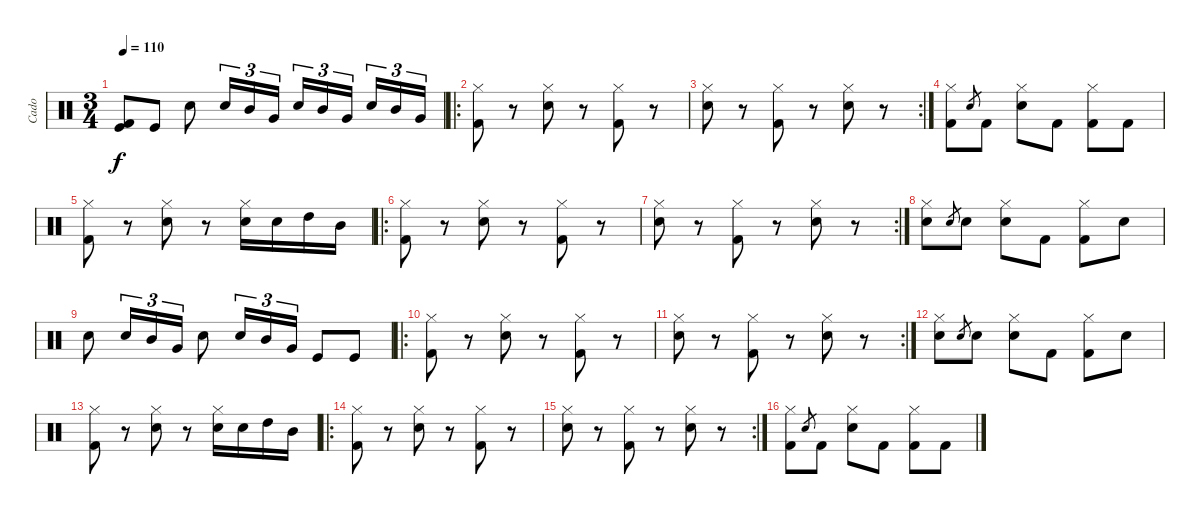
\track ("Cado" "Cado") {instrument percussion}
\staff {score}
\articulation defaults
\ts (3 4)
\tempo 110
\clef neutral
\ks c
("Kick (hit) 2" "Kick (hit)").8{dy f} "Kick (hit)".8 "Snare (hit) 2".8 "Snare (hit) 2".16{tu (3 2)} "Mid Tom (hit)".16{tu (3 2)} "Very Low Tom (hit)".16{tu (3 2)} "Snare (hit) 2".16{tu (3 2)} "Mid Tom (hit)".16{tu (3 2)} "Very Low Tom (hit)".16{tu (3 2)} "Snare (hit) 2".16{tu (3 2)} "Mid Tom (hit)".16{tu (3 2)} "Very Low Tom (hit)".16{tu (3 2)} |
\ro
("Hi-Hat (closed)" "Kick (hit) 2").8 r.8 ("Hi-Hat (closed)" "Snare (hit) 2").8 r.8 ("Hi-Hat (closed)" "Kick (hit) 2").8 r.8 |
\rc 2
("Hi-Hat (closed)" "Snare (hit) 2").8 r.8 ("Hi-Hat (closed)" "Kick (hit) 2").8 r.8 ("Hi-Hat (closed)" "Snare (hit) 2").8 r.8 |
("Hi-Hat (closed)" "Kick (hit) 2").8 "Snare (hit) 2".8{gr} "Kick (hit) 2".8 ("Hi-Hat (closed)" "Snare (hit) 2").8 "Kick (hit) 2".8 ("Hi-Hat (closed)" "Kick (hit) 2").8 "Kick (hit) 2".8 |
("Hi-Hat (closed)" "Kick (hit) 2").8 r.8 ("Hi-Hat (closed)" "Snare (hit) 2").8 r.8 ("Hi-Hat (closed)" "Snare (hit) 2").16 "Snare (hit) 2".16 "High Tom (hit)".16 "Mid Tom (hit)".16 |
\ro
("Hi-Hat (closed)" "Kick (hit) 2").8 r.8 ("Hi-Hat (closed)" "Snare (hit) 2").8 r.8 ("Hi-Hat (closed)" "Kick (hit) 2").8 r.8 |
\rc 2
("Hi-Hat (closed)" "Snare (hit) 2").8 r.8 ("Hi-Hat (closed)" "Kick (hit) 2").8 r.8 ("Hi-Hat (closed)" "Snare (hit) 2").8 r.8 |
("Hi-Hat (closed)" "Snare (hit) 2").8 "Snare (hit) 2".8{gr} "Snare (hit) 2".8 ("Hi-Hat (closed)" "Snare (hit) 2").8 "Kick (hit) 2".8 ("Hi-Hat (closed)" "Kick (hit) 2").8 "Snare (hit) 2".8 |
"Snare (hit) 2".8 "Snare (hit) 2".16{tu (3 2)} "Mid Tom (hit)".16{tu (3 2)} "Very Low Tom (hit)".16{tu (3 2)} "Snare (hit) 2".8 "Snare (hit) 2".16{tu (3 2)} "Mid Tom (hit)".16{tu (3 2)} "Very Low Tom (hit)".16{tu (3 2)} "Kick (hit)".8 "Kick (hit)".8 |
\ro
("Hi-Hat (closed)" "Kick (hit) 2").8 r.8 ("Hi-Hat (closed)" "Snare (hit) 2").8 r.8 ("Hi-Hat (closed)" "Kick (hit) 2").8 r.8 |
\rc 2
("Hi-Hat (closed)" "Snare (hit) 2").8 r.8 ("Hi-Hat (closed)" "Kick (hit) 2").8 r.8 ("Hi-Hat (closed)" "Snare (hit) 2").8 r.8 |
("Hi-Hat (closed)" "Snare (hit) 2").8 "Snare (hit) 2".8{gr} "Snare (hit) 2".8 ("Hi-Hat (closed)" "Snare (hit) 2").8 "Kick (hit) 2".8 ("Hi-Hat (closed)" "Kick (hit) 2").8 "Snare (hit) 2".8 |
("Hi-Hat (closed)" "Kick (hit) 2").8 r.8 ("Hi-Hat (closed)" "Snare (hit) 2").8 r.8 ("Hi-Hat (closed)" "Snare (hit) 2").16 "Snare (hit) 2".16 "High Tom (hit)".16 "Mid Tom (hit)".16 |
\ro
("Hi-Hat (closed)" "Kick (hit) 2").8 r.8 ("Hi-Hat (closed)" "Snare (hit) 2").8 r.8 ("Hi-Hat (closed)" "Kick (hit) 2").8 r.8 |
\rc 2
("Hi-Hat (closed)" "Snare (hit) 2").8 r.8 ("Hi-Hat (closed)" "Kick (hit) 2").8 r.8 ("Hi-Hat (closed)" "Snare (hit) 2").8 r.8 |
("Hi-Hat (closed)" "Kick (hit) 2").8 "Snare (hit) 2".8{gr} "Kick (hit) 2".8 ("Hi-Hat (closed)" "Snare (hit) 2").8 "Kick (hit) 2".8 ("Hi-Hat (closed)" "Kick (hit) 2").8 "Kick (hit) 2".8
